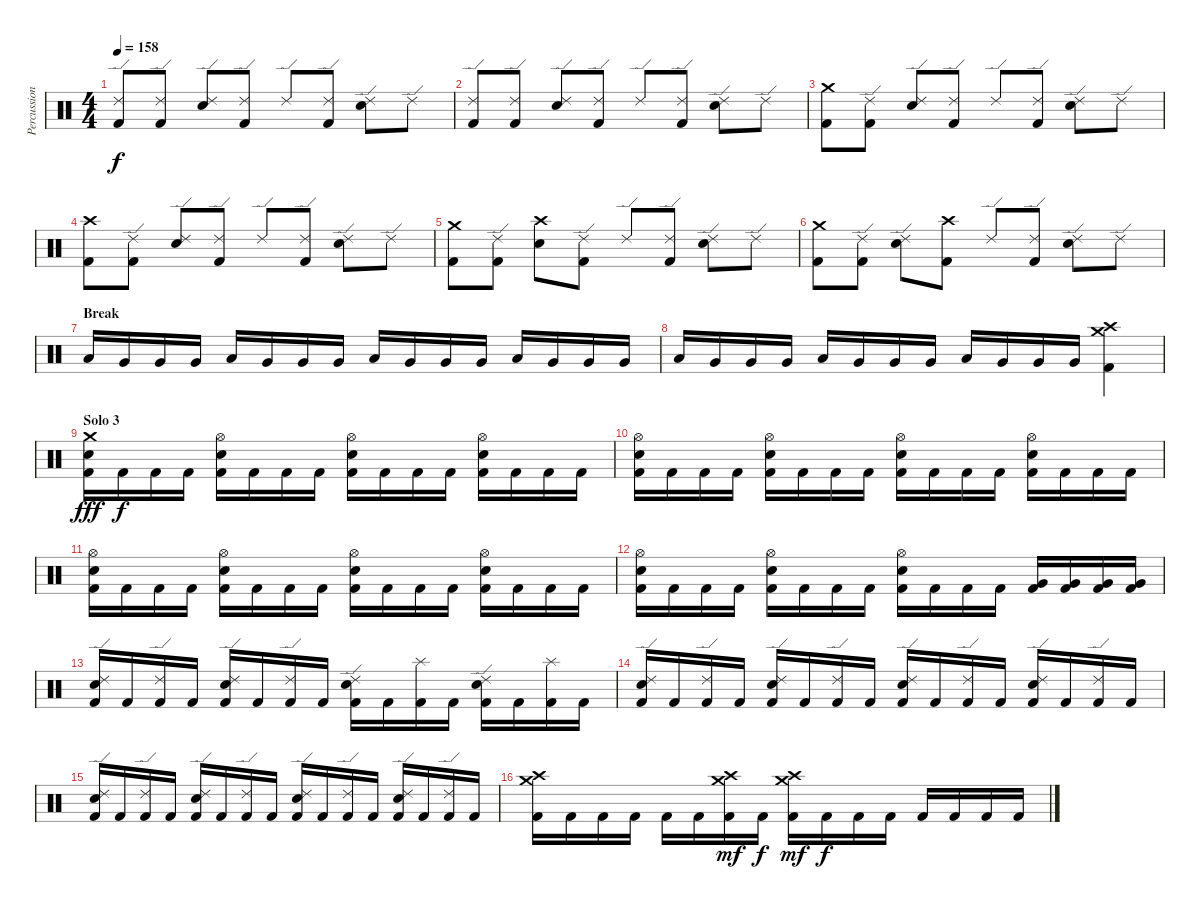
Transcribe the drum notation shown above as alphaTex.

\track ("Percussions" "Percussion") {instrument percussion}
\staff {score}
\articulation defaults
\ts (4 4)
\tempo 158
\clef neutral
\ks c
("Ride (edge) 2" "Kick (hit) 2").8{dy f} ("Ride (edge) 2" "Kick (hit) 2").8 ("Ride (edge) 2" "Electric Snare (hit)").8 ("Ride (edge) 2" "Kick (hit) 2").8 "Ride (edge) 2".8 ("Ride (edge) 2" "Kick (hit) 2").8 ("Ride (edge) 2" "Electric Snare (hit)").8 "Ride (edge) 2".8 |
("Ride (edge) 2" "Kick (hit) 2").8 ("Ride (edge) 2" "Kick (hit) 2").8 ("Ride (edge) 2" "Electric Snare (hit)").8 ("Ride (edge) 2" "Kick (hit) 2").8 "Ride (edge) 2".8 ("Ride (edge) 2" "Kick (hit) 2").8 ("Ride (edge) 2" "Electric Snare (hit)").8 "Ride (edge) 2".8 |
("Crash medium (hit)" "Kick (hit) 2").8 ("Ride (edge) 2" "Kick (hit) 2").8 ("Ride (edge) 2" "Electric Snare (hit)").8 ("Ride (edge) 2" "Kick (hit) 2").8 "Ride (edge) 2".8 ("Ride (edge) 2" "Kick (hit) 2").8 ("Ride (edge) 2" "Electric Snare (hit)").8 "Ride (edge) 2".8 |
("Crash high (hit)" "Kick (hit) 2").8 ("Ride (edge) 2" "Kick (hit) 2").8 ("Ride (edge) 2" "Electric Snare (hit)").8 ("Ride (edge) 2" "Kick (hit) 2").8 "Ride (edge) 2".8 ("Ride (edge) 2" "Kick (hit) 2").8 ("Ride (edge) 2" "Electric Snare (hit)").8 "Ride (edge) 2".8 |
("Crash medium (hit)" "Kick (hit) 2").8 ("Ride (edge) 2" "Kick (hit) 2").8 ("Crash high (hit)" "Electric Snare (hit)").8 ("Ride (edge) 2" "Kick (hit) 2").8 "Ride (edge) 2".8 ("Ride (edge) 2" "Kick (hit) 2").8 ("Ride (edge) 2" "Electric Snare (hit)").8 "Ride (edge) 2".8 |
("Crash medium (hit)" "Kick (hit) 2").8 ("Ride (edge) 2" "Kick (hit) 2").8 ("Ride (edge) 2" "Electric Snare (hit)").8 ("Crash high (hit)" "Kick (hit) 2").8 "Ride (edge) 2".8 ("Ride (edge) 2" "Kick (hit) 2").8 ("Ride (edge) 2" "Electric Snare (hit)").8 "Ride (edge) 2".8 |
\section ("" "Break")
"Low Tom (hit)".16 "Very Low Tom (hit)".16 "Very Low Tom (hit)".16 "Very Low Tom (hit)".16 "Low Tom (hit)".16 "Very Low Tom (hit)".16 "Very Low Tom (hit)".16 "Very Low Tom (hit)".16 "Low Tom (hit)".16 "Very Low Tom (hit)".16 "Very Low Tom (hit)".16 "Very Low Tom (hit)".16 "Low Tom (hit)".16 "Very Low Tom (hit)".16 "Very Low Tom (hit)".16 "Very Low Tom (hit)".16 |
"Low Tom (hit)".16 "Very Low Tom (hit)".16 "Very Low Tom (hit)".16 "Very Low Tom (hit)".16 "Low Tom (hit)".16 "Very Low Tom (hit)".16 "Very Low Tom (hit)".16 "Very Low Tom (hit)".16 "Low Tom (hit)".16 "Very Low Tom (hit)".16 "Very Low Tom (hit)".16 "Very Low Tom (hit)".16 ("Crash high (hit)" "Crash medium (hit)" "Kick (hit) 2").4 |
\section ("" "Solo 3")
("Crash medium (hit)" "Electric Snare (hit)" "Kick (hit) 2").16{dy fff} "Kick (hit) 2".16{dy f} "Kick (hit) 2".16 "Kick (hit) 2".16 ("Hi-Hat (open)" "Electric Snare (hit)" "Kick (hit) 2").16 "Kick (hit) 2".16 "Kick (hit) 2".16 "Kick (hit) 2".16 ("Hi-Hat (open)" "Electric Snare (hit)" "Kick (hit) 2").16 "Kick (hit) 2".16 "Kick (hit) 2".16 "Kick (hit) 2".16 ("Hi-Hat (open)" "Electric Snare (hit)" "Kick (hit) 2").16 "Kick (hit) 2".16 "Kick (hit) 2".16 "Kick (hit) 2".16 |
("Hi-Hat (open)" "Electric Snare (hit)" "Kick (hit) 2").16 "Kick (hit) 2".16 "Kick (hit) 2".16 "Kick (hit) 2".16 ("Hi-Hat (open)" "Electric Snare (hit)" "Kick (hit) 2").16 "Kick (hit) 2".16 "Kick (hit) 2".16 "Kick (hit) 2".16 ("Hi-Hat (open)" "Electric Snare (hit)" "Kick (hit) 2").16 "Kick (hit) 2".16 "Kick (hit) 2".16 "Kick (hit) 2".16 ("Hi-Hat (open)" "Electric Snare (hit)" "Kick (hit) 2").16 "Kick (hit) 2".16 "Kick (hit) 2".16 "Kick (hit) 2".16 |
("Hi-Hat (open)" "Electric Snare (hit)" "Kick (hit) 2").16 "Kick (hit) 2".16 "Kick (hit) 2".16 "Kick (hit) 2".16 ("Hi-Hat (open)" "Electric Snare (hit)" "Kick (hit) 2").16 "Kick (hit) 2".16 "Kick (hit) 2".16 "Kick (hit) 2".16 ("Hi-Hat (open)" "Electric Snare (hit)" "Kick (hit) 2").16 "Kick (hit) 2".16 "Kick (hit) 2".16 "Kick (hit) 2".16 ("Hi-Hat (open)" "Electric Snare (hit)" "Kick (hit) 2").16 "Kick (hit) 2".16 "Kick (hit) 2".16 "Kick (hit) 2".16 |
("Hi-Hat (open)" "Electric Snare (hit)" "Kick (hit) 2").16 "Kick (hit) 2".16 "Kick (hit) 2".16 "Kick (hit) 2".16 ("Hi-Hat (open)" "Electric Snare (hit)" "Kick (hit) 2").16 "Kick (hit) 2".16 "Kick (hit) 2".16 "Kick (hit) 2".16 ("Hi-Hat (open)" "Electric Snare (hit)" "Kick (hit) 2").16 "Kick (hit) 2".16 "Kick (hit) 2".16 "Kick (hit) 2".16 ("Very Low Tom (hit)" "Kick (hit) 2").16 ("Very Low Tom (hit)" "Kick (hit) 2").16 ("Very Low Tom (hit)" "Kick (hit) 2").16 ("Very Low Tom (hit)" "Kick (hit) 2").16 |
("Ride (edge) 2" "Electric Snare (hit)" "Kick (hit) 2").16 "Kick (hit) 2".16 ("Ride (edge) 2" "Kick (hit) 2").16 "Kick (hit) 2".16 ("Ride (edge) 2" "Electric Snare (hit)" "Kick (hit) 2").16 "Kick (hit) 2".16 ("Ride (edge) 2" "Kick (hit) 2").16 "Kick (hit) 2".16 ("Ride (edge) 2" "Electric Snare (hit)" "Kick (hit) 2").16 "Kick (hit) 2".16 ("Splash (hit)" "Kick (hit) 2").16 "Kick (hit) 2".16 ("Ride (edge) 2" "Electric Snare (hit)" "Kick (hit) 2").16 "Kick (hit) 2".16 ("Splash (hit)" "Kick (hit) 2").16 "Kick (hit) 2".16 |
("Ride (edge) 2" "Electric Snare (hit)" "Kick (hit) 2").16 "Kick (hit) 2".16 ("Ride (edge) 2" "Kick (hit) 2").16 "Kick (hit) 2".16 ("Ride (edge) 2" "Electric Snare (hit)" "Kick (hit) 2").16 "Kick (hit) 2".16 ("Ride (edge) 2" "Kick (hit) 2").16 "Kick (hit) 2".16 ("Ride (edge) 2" "Electric Snare (hit)" "Kick (hit) 2").16 "Kick (hit) 2".16 ("Ride (edge) 2" "Kick (hit) 2").16 "Kick (hit) 2".16 ("Ride (edge) 2" "Electric Snare (hit)" "Kick (hit) 2").16 "Kick (hit) 2".16 ("Ride (edge) 2" "Kick (hit) 2").16 "Kick (hit) 2".16 |
("Ride (edge) 2" "Electric Snare (hit)" "Kick (hit) 2").16 "Kick (hit) 2".16 ("Ride (edge) 2" "Kick (hit) 2").16 "Kick (hit) 2".16 ("Ride (edge) 2" "Electric Snare (hit)" "Kick (hit) 2").16 "Kick (hit) 2".16 ("Ride (edge) 2" "Kick (hit) 2").16 "Kick (hit) 2".16 ("Ride (edge) 2" "Electric Snare (hit)" "Kick (hit) 2").16 "Kick (hit) 2".16 ("Ride (edge) 2" "Kick (hit) 2").16 "Kick (hit) 2".16 ("Ride (edge) 2" "Electric Snare (hit)" "Kick (hit) 2").16 "Kick (hit) 2".16 ("Ride (edge) 2" "Kick (hit) 2").16 "Kick (hit) 2".16 |
("Crash medium (hit)" "Crash high (hit)" "Kick (hit) 2").16 "Kick (hit) 2".16 "Kick (hit) 2".16 "Kick (hit) 2".16 "Kick (hit) 2".16 "Kick (hit) 2".16 ("Crash medium (hit)" "Crash high (hit)" "Kick (hit) 2").16{dy mf} "Kick (hit) 2".16{dy f} ("Crash medium (hit)" "Crash high (hit)" "Kick (hit) 2").16{dy mf} "Kick (hit) 2".16{dy f} "Kick (hit) 2".16 "Kick (hit) 2".16 "Kick (hit) 2".16 "Kick (hit) 2".16 "Kick (hit) 2".16 "Kick (hit) 2".16
